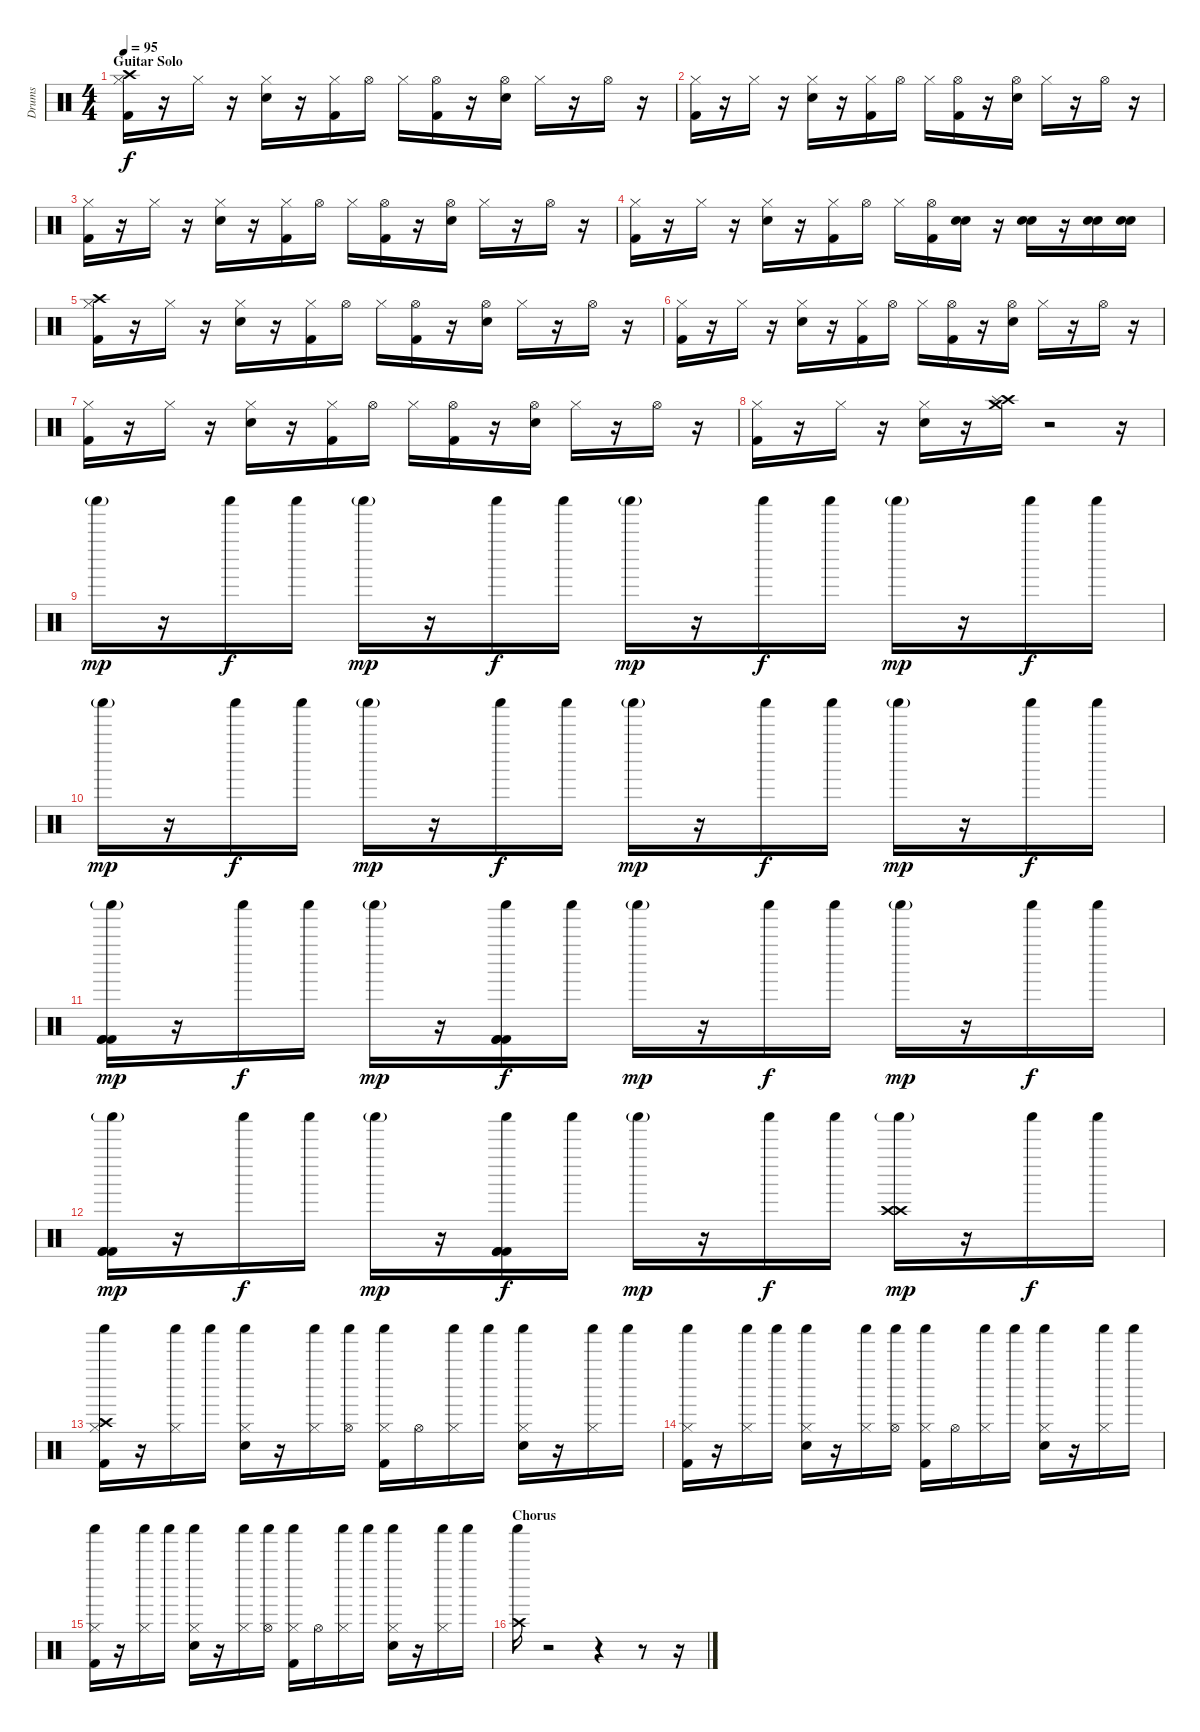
\track ("Drums" "Drums") {instrument percussion}
\staff {score}
\articulation defaults
\ts (4 4)
\section ("" "Guitar Solo")
\tempo 95
\clef neutral
\ks c
("Crash high (hit)" "Hi-Hat (closed)" "Kick (hit) 2").16{dy f} r.16 "Hi-Hat (closed)".16 r.16 ("Hi-Hat (closed)" "Snare (hit) 2").16 r.16 ("Hi-Hat (closed)" "Kick (hit) 2").16 "Hi-Hat (open)".16 "Hi-Hat (closed)".16 ("Hi-Hat (open)" "Kick (hit) 2").16 r.16 ("Hi-Hat (open)" "Snare (hit) 2").16 "Hi-Hat (closed)".16 r.16 "Hi-Hat (open)".16 r.16 |
("Hi-Hat (closed)" "Kick (hit) 2").16 r.16 "Hi-Hat (closed)".16 r.16 ("Hi-Hat (closed)" "Snare (hit) 2").16 r.16 ("Hi-Hat (closed)" "Kick (hit) 2").16 "Hi-Hat (open)".16 "Hi-Hat (closed)".16 ("Hi-Hat (open)" "Kick (hit) 2").16 r.16 ("Hi-Hat (open)" "Snare (hit) 2").16 "Hi-Hat (closed)".16 r.16 "Hi-Hat (open)".16 r.16 |
("Hi-Hat (closed)" "Kick (hit) 2").16 r.16 "Hi-Hat (closed)".16 r.16 ("Hi-Hat (closed)" "Snare (hit) 2").16 r.16 ("Hi-Hat (closed)" "Kick (hit) 2").16 "Hi-Hat (open)".16 "Hi-Hat (closed)".16 ("Hi-Hat (open)" "Kick (hit) 2").16 r.16 ("Hi-Hat (open)" "Snare (hit) 2").16 "Hi-Hat (closed)".16 r.16 "Hi-Hat (open)".16 r.16 |
("Hi-Hat (closed)" "Kick (hit) 2").16 r.16 "Hi-Hat (closed)".16 r.16 ("Hi-Hat (closed)" "Snare (hit) 2").16 r.16 ("Hi-Hat (closed)" "Kick (hit) 2").16 "Hi-Hat (open)".16 "Hi-Hat (closed)".16 ("Hi-Hat (open)" "Kick (hit) 2").16 ("Snare (hit) 2" "Snare (hit) 2").16 r.16 ("Snare (hit) 2" "Snare (hit) 2").16 r.16 ("Snare (hit) 2" "Snare (hit) 2").16 ("Snare (hit) 2" "Snare (hit) 2").16 |
("Crash high (hit)" "Hi-Hat (closed)" "Kick (hit) 2").16 r.16 "Hi-Hat (closed)".16 r.16 ("Hi-Hat (closed)" "Snare (hit) 2").16 r.16 ("Hi-Hat (closed)" "Kick (hit) 2").16 "Hi-Hat (open)".16 "Hi-Hat (closed)".16 ("Hi-Hat (open)" "Kick (hit) 2").16 r.16 ("Hi-Hat (open)" "Snare (hit) 2").16 "Hi-Hat (closed)".16 r.16 "Hi-Hat (open)".16 r.16 |
("Hi-Hat (closed)" "Kick (hit) 2").16 r.16 "Hi-Hat (closed)".16 r.16 ("Hi-Hat (closed)" "Snare (hit) 2").16 r.16 ("Hi-Hat (closed)" "Kick (hit) 2").16 "Hi-Hat (open)".16 "Hi-Hat (closed)".16 ("Hi-Hat (open)" "Kick (hit) 2").16 r.16 ("Hi-Hat (open)" "Snare (hit) 2").16 "Hi-Hat (closed)".16 r.16 "Hi-Hat (open)".16 r.16 |
("Hi-Hat (closed)" "Kick (hit) 2").16 r.16 "Hi-Hat (closed)".16 r.16 ("Hi-Hat (closed)" "Snare (hit) 2").16 r.16 ("Hi-Hat (closed)" "Kick (hit) 2").16 "Hi-Hat (open)".16 "Hi-Hat (closed)".16 ("Hi-Hat (open)" "Kick (hit) 2").16 r.16 ("Hi-Hat (open)" "Snare (hit) 2").16 "Hi-Hat (closed)".16 r.16 "Hi-Hat (open)".16 r.16 |
("Hi-Hat (closed)" "Kick (hit) 2").16 r.16 "Hi-Hat (closed)".16 r.16 ("Hi-Hat (closed)" "Snare (hit) 2").16 r.16 ("Crash high (hit)" "Splash (hit)" "Crash medium (hit)").16 r.2 r.16 |
"Shaker (hit)"{g}.16{dy mp} r.16 "Shaker (hit)".16{dy f} "Shaker (hit)".16 "Shaker (hit)"{g}.16{dy mp} r.16 "Shaker (hit)".16{dy f} "Shaker (hit)".16 "Shaker (hit)"{g}.16{dy mp} r.16 "Shaker (hit)".16{dy f} "Shaker (hit)".16 "Shaker (hit)"{g}.16{dy mp} r.16 "Shaker (hit)".16{dy f} "Shaker (hit)".16 |
"Shaker (hit)"{g}.16{dy mp} r.16 "Shaker (hit)".16{dy f} "Shaker (hit)".16 "Shaker (hit)"{g}.16{dy mp} r.16 "Shaker (hit)".16{dy f} "Shaker (hit)".16 "Shaker (hit)"{g}.16{dy mp} r.16 "Shaker (hit)".16{dy f} "Shaker (hit)".16 "Shaker (hit)"{g}.16{dy mp} r.16 "Shaker (hit)".16{dy f} "Shaker (hit)".16 |
("Shaker (hit)"{g} "Kick (hit) 2" "Kick (hit) 2" "Kick (hit) 2").16{dy mp} r.16 "Shaker (hit)".16{dy f} "Shaker (hit)".16 "Shaker (hit)"{g}.16{dy mp} r.16 ("Shaker (hit)" "Kick (hit) 2" "Kick (hit) 2" "Kick (hit) 2").16{dy f} "Shaker (hit)".16 "Shaker (hit)"{g}.16{dy mp} r.16 "Shaker (hit)".16{dy f} "Shaker (hit)".16 "Shaker (hit)"{g}.16{dy mp} r.16 "Shaker (hit)".16{dy f} "Shaker (hit)".16 |
("Shaker (hit)"{g} "Kick (hit) 2" "Kick (hit) 2" "Kick (hit) 2").16{dy mp} r.16 "Shaker (hit)".16{dy f} "Shaker (hit)".16 "Shaker (hit)"{g}.16{dy mp} r.16 ("Shaker (hit)" "Kick (hit) 2" "Kick (hit) 2" "Kick (hit) 2").16{dy f} "Shaker (hit)".16 "Shaker (hit)"{g}.16{dy mp} r.16 "Shaker (hit)".16{dy f} "Shaker (hit)".16 ("Shaker (hit)"{g} "Crash high (hit)" "Crash high (hit)").16{dy mp} r.16 "Shaker (hit)".16{dy f} "Shaker (hit)".16 |
("Crash high (hit)" "Shaker (hit)" "Hi-Hat (closed)" "Kick (hit) 2").16 r.16 ("Shaker (hit)" "Hi-Hat (closed)").16 "Shaker (hit)".16 ("Shaker (hit)" "Hi-Hat (closed)" "Snare (hit) 2").16 r.16 ("Shaker (hit)" "Hi-Hat (closed)").16 ("Shaker (hit)" "Hi-Hat (open)").16 ("Shaker (hit)" "Hi-Hat (closed)" "Kick (hit) 2").16 "Hi-Hat (open)".16 ("Shaker (hit)" "Hi-Hat (closed)").16 "Shaker (hit)".16 ("Shaker (hit)" "Hi-Hat (closed)" "Snare (hit) 2").16 r.16 ("Shaker (hit)" "Hi-Hat (closed)").16 "Shaker (hit)".16 |
("Shaker (hit)" "Hi-Hat (closed)" "Kick (hit) 2").16 r.16 ("Shaker (hit)" "Hi-Hat (closed)").16 "Shaker (hit)".16 ("Shaker (hit)" "Hi-Hat (closed)" "Snare (hit) 2").16 r.16 ("Shaker (hit)" "Hi-Hat (closed)").16 ("Shaker (hit)" "Hi-Hat (open)").16 ("Shaker (hit)" "Hi-Hat (closed)" "Kick (hit) 2").16 "Hi-Hat (open)".16 ("Shaker (hit)" "Hi-Hat (closed)").16 "Shaker (hit)".16 ("Shaker (hit)" "Hi-Hat (closed)" "Snare (hit) 2").16 r.16 ("Shaker (hit)" "Hi-Hat (closed)").16 "Shaker (hit)".16 |
("Shaker (hit)" "Hi-Hat (closed)" "Kick (hit) 2").16 r.16 ("Shaker (hit)" "Hi-Hat (closed)").16 "Shaker (hit)".16 ("Shaker (hit)" "Hi-Hat (closed)" "Snare (hit) 2").16 r.16 ("Shaker (hit)" "Hi-Hat (closed)").16 ("Shaker (hit)" "Hi-Hat (open)").16 ("Shaker (hit)" "Hi-Hat (closed)" "Kick (hit) 2").16 "Hi-Hat (open)".16 ("Shaker (hit)" "Hi-Hat (closed)").16 "Shaker (hit)".16 ("Shaker (hit)" "Hi-Hat (closed)" "Snare (hit) 2").16 r.16 ("Shaker (hit)" "Hi-Hat (closed)").16 "Shaker (hit)".16 |
\section ("" "Chorus")
("Shaker (hit)" "Crash high (hit)").16 r.2 r.4 r.8 r.16
